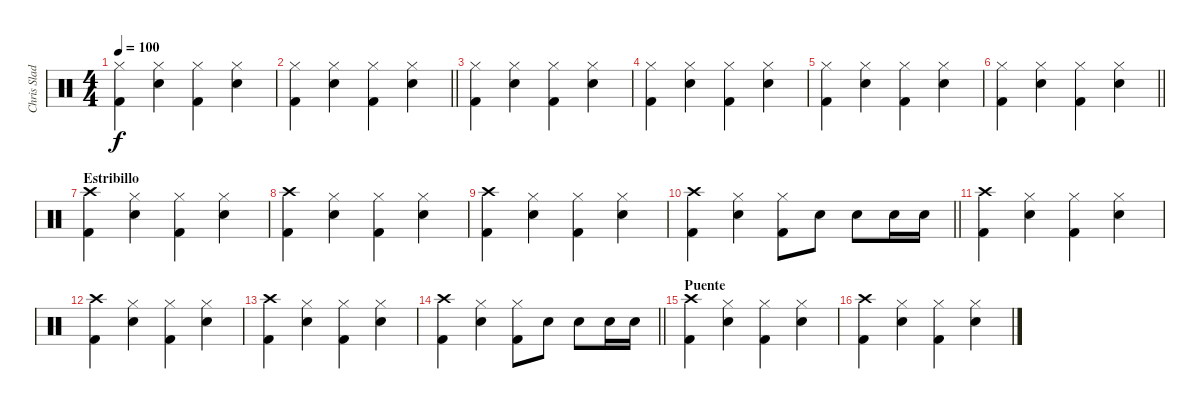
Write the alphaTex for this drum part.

\track ("Chris Slade" "Chris Slad") {instrument percussion}
\staff {score}
\articulation defaults
\ts (4 4)
\tempo 100
\clef neutral
\ks c
("Kick (hit) 2" "Hi-Hat (closed)").4{dy f} ("Snare (hit) 2" "Hi-Hat (closed)").4 ("Kick (hit) 2" "Hi-Hat (closed)").4 ("Snare (hit) 2" "Hi-Hat (closed)").4 |
\barLineRight lightlight
("Kick (hit) 2" "Hi-Hat (closed)").4 ("Snare (hit) 2" "Hi-Hat (closed)").4 ("Kick (hit) 2" "Hi-Hat (closed)").4 ("Snare (hit) 2" "Hi-Hat (closed)").4 |
("Kick (hit) 2" "Hi-Hat (closed)").4 ("Snare (hit) 2" "Hi-Hat (closed)").4 ("Kick (hit) 2" "Hi-Hat (closed)").4 ("Snare (hit) 2" "Hi-Hat (closed)").4 |
("Kick (hit) 2" "Hi-Hat (closed)").4 ("Snare (hit) 2" "Hi-Hat (closed)").4 ("Kick (hit) 2" "Hi-Hat (closed)").4 ("Snare (hit) 2" "Hi-Hat (closed)").4 |
("Kick (hit) 2" "Hi-Hat (closed)").4 ("Snare (hit) 2" "Hi-Hat (closed)").4 ("Kick (hit) 2" "Hi-Hat (closed)").4 ("Snare (hit) 2" "Hi-Hat (closed)").4 |
\barLineRight lightlight
("Kick (hit) 2" "Hi-Hat (closed)").4 ("Snare (hit) 2" "Hi-Hat (closed)").4 ("Kick (hit) 2" "Hi-Hat (closed)").4 ("Snare (hit) 2" "Hi-Hat (closed)").4 |
\section ("" "Estribillo")
("Kick (hit) 2" "Crash high (hit)").4 ("Snare (hit) 2" "Hi-Hat (closed)").4 ("Kick (hit) 2" "Hi-Hat (closed)").4 ("Snare (hit) 2" "Hi-Hat (closed)").4 |
("Kick (hit) 2" "Crash high (hit)").4 ("Snare (hit) 2" "Hi-Hat (closed)").4 ("Kick (hit) 2" "Hi-Hat (closed)").4 ("Snare (hit) 2" "Hi-Hat (closed)").4 |
("Kick (hit) 2" "Crash high (hit)").4 ("Snare (hit) 2" "Hi-Hat (closed)").4 ("Kick (hit) 2" "Hi-Hat (closed)").4 ("Snare (hit) 2" "Hi-Hat (closed)").4 |
\barLineRight lightlight
("Kick (hit) 2" "Crash high (hit)").4 ("Snare (hit) 2" "Hi-Hat (closed)").4 ("Kick (hit) 2" "Hi-Hat (closed)").8 "Snare (hit) 2".8 "Snare (hit) 2".8 "Snare (hit) 2".16 "Snare (hit) 2".16 |
("Kick (hit) 2" "Crash high (hit)").4 ("Snare (hit) 2" "Hi-Hat (closed)").4 ("Kick (hit) 2" "Hi-Hat (closed)").4 ("Snare (hit) 2" "Hi-Hat (closed)").4 |
("Kick (hit) 2" "Crash high (hit)").4 ("Snare (hit) 2" "Hi-Hat (closed)").4 ("Kick (hit) 2" "Hi-Hat (closed)").4 ("Snare (hit) 2" "Hi-Hat (closed)").4 |
("Kick (hit) 2" "Crash high (hit)").4 ("Snare (hit) 2" "Hi-Hat (closed)").4 ("Kick (hit) 2" "Hi-Hat (closed)").4 ("Snare (hit) 2" "Hi-Hat (closed)").4 |
\barLineRight lightlight
("Kick (hit) 2" "Crash high (hit)").4 ("Snare (hit) 2" "Hi-Hat (closed)").4 ("Kick (hit) 2" "Hi-Hat (closed)").8 "Snare (hit) 2".8 "Snare (hit) 2".8 "Snare (hit) 2".16 "Snare (hit) 2".16 |
\section ("" "Puente")
("Kick (hit) 2" "Crash high (hit)").4 ("Snare (hit) 2" "Hi-Hat (closed)").4 ("Kick (hit) 2" "Hi-Hat (closed)").4 ("Snare (hit) 2" "Hi-Hat (closed)").4 |
("Kick (hit) 2" "Crash high (hit)").4 ("Snare (hit) 2" "Hi-Hat (closed)").4 ("Kick (hit) 2" "Hi-Hat (closed)").4 ("Snare (hit) 2" "Hi-Hat (closed)").4
